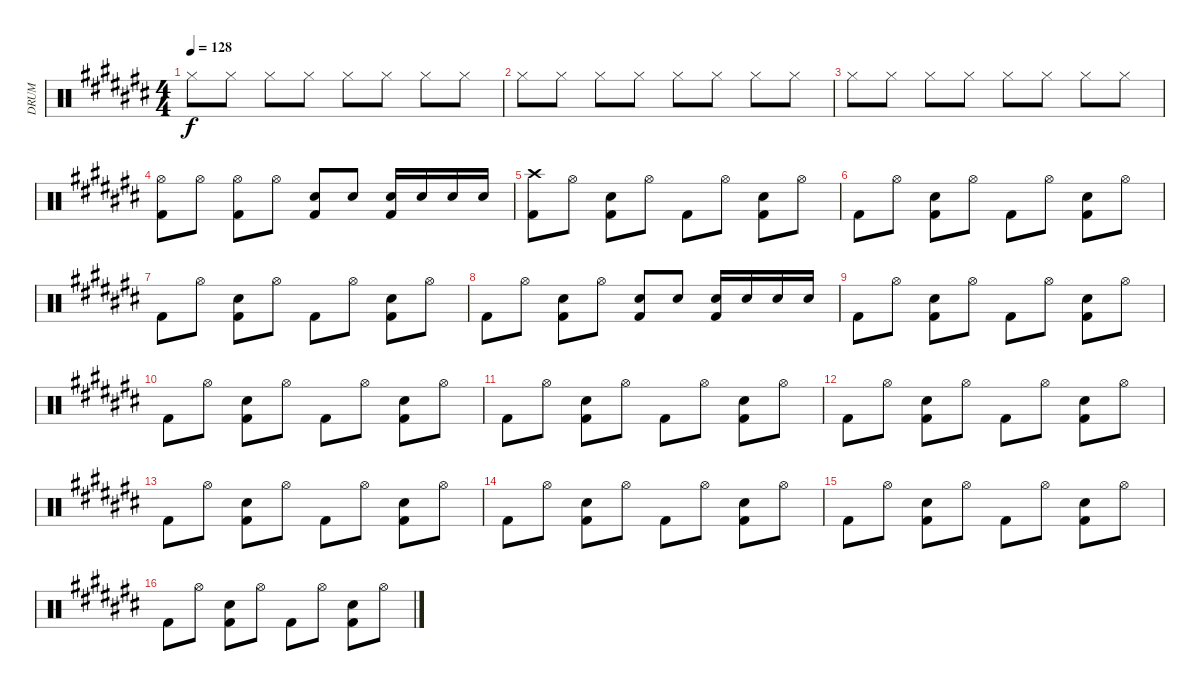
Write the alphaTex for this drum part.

\track ("DRUM" "DRUM") {instrument percussion}
\staff {score}
\articulation defaults
\ts (4 4)
\tempo 128
\clef neutral
\ks c# "Hi-Hat (closed)".8{dy f} "Hi-Hat (closed)".8 "Hi-Hat (closed)".8 "Hi-Hat (closed)".8 "Hi-Hat (closed)".8 "Hi-Hat (closed)".8 "Hi-Hat (closed)".8 "Hi-Hat (closed)".8
|
"Hi-Hat (closed)".8 "Hi-Hat (closed)".8 "Hi-Hat (closed)".8 "Hi-Hat (closed)".8 "Hi-Hat (closed)".8 "Hi-Hat (closed)".8 "Hi-Hat (closed)".8 "Hi-Hat (closed)".8 |
"Hi-Hat (closed)".8 "Hi-Hat (closed)".8 "Hi-Hat (closed)".8 "Hi-Hat (closed)".8 "Hi-Hat (closed)".8 "Hi-Hat (closed)".8 "Hi-Hat (closed)".8 "Hi-Hat (closed)".8 |
("Hi-Hat (open)" "Kick (hit) 2").8 "Hi-Hat (open)".8 ("Hi-Hat (open)" "Kick (hit) 2").8 "Hi-Hat (open)".8 ("Electric Snare (hit)" "Kick (hit) 2").8 "Electric Snare (hit)".8 ("Electric Snare (hit)" "Kick (hit) 2").16 "Electric Snare (hit)".16 "Electric Snare (hit)".16 "Electric Snare (hit)".16 |
("Crash high (hit)" "Kick (hit) 2").8 "Hi-Hat (open)".8 ("Electric Snare (hit)" "Kick (hit) 2").8 "Hi-Hat (open)".8 "Kick (hit) 2".8 "Hi-Hat (open)".8 ("Electric Snare (hit)" "Kick (hit) 2").8 "Hi-Hat (open)".8 |
"Kick (hit) 2".8 "Hi-Hat (open)".8 ("Electric Snare (hit)" "Kick (hit) 2").8 "Hi-Hat (open)".8 "Kick (hit) 2".8 "Hi-Hat (open)".8 ("Electric Snare (hit)" "Kick (hit) 2").8 "Hi-Hat (open)".8 |
"Kick (hit) 2".8 "Hi-Hat (open)".8 ("Electric Snare (hit)" "Kick (hit) 2").8 "Hi-Hat (open)".8 "Kick (hit) 2".8 "Hi-Hat (open)".8 ("Electric Snare (hit)" "Kick (hit) 2").8 "Hi-Hat (open)".8 |
"Kick (hit) 2".8 "Hi-Hat (open)".8 ("Electric Snare (hit)" "Kick (hit) 2").8 "Hi-Hat (open)".8 ("Electric Snare (hit)" "Kick (hit) 2").8 "Electric Snare (hit)".8 ("Electric Snare (hit)" "Kick (hit) 2").16 "Electric Snare (hit)".16 "Electric Snare (hit)".16 "Electric Snare (hit)".16 |
"Kick (hit) 2".8 "Hi-Hat (open)".8 ("Electric Snare (hit)" "Kick (hit) 2").8 "Hi-Hat (open)".8 "Kick (hit) 2".8 "Hi-Hat (open)".8 ("Electric Snare (hit)" "Kick (hit) 2").8 "Hi-Hat (open)".8 |
"Kick (hit) 2".8 "Hi-Hat (open)".8 ("Electric Snare (hit)" "Kick (hit) 2").8 "Hi-Hat (open)".8 "Kick (hit) 2".8 "Hi-Hat (open)".8 ("Electric Snare (hit)" "Kick (hit) 2").8 "Hi-Hat (open)".8 |
"Kick (hit) 2".8 "Hi-Hat (open)".8 ("Electric Snare (hit)" "Kick (hit) 2").8 "Hi-Hat (open)".8 "Kick (hit) 2".8 "Hi-Hat (open)".8 ("Electric Snare (hit)" "Kick (hit) 2").8 "Hi-Hat (open)".8 |
"Kick (hit) 2".8 "Hi-Hat (open)".8 ("Electric Snare (hit)" "Kick (hit) 2").8 "Hi-Hat (open)".8 "Kick (hit) 2".8 "Hi-Hat (open)".8 ("Electric Snare (hit)" "Kick (hit) 2").8 "Hi-Hat (open)".8 |
"Kick (hit) 2".8 "Hi-Hat (open)".8 ("Electric Snare (hit)" "Kick (hit) 2").8 "Hi-Hat (open)".8 "Kick (hit) 2".8 "Hi-Hat (open)".8 ("Electric Snare (hit)" "Kick (hit) 2").8 "Hi-Hat (open)".8 |
"Kick (hit) 2".8 "Hi-Hat (open)".8 ("Electric Snare (hit)" "Kick (hit) 2").8 "Hi-Hat (open)".8 "Kick (hit) 2".8 "Hi-Hat (open)".8 ("Electric Snare (hit)" "Kick (hit) 2").8 "Hi-Hat (open)".8 |
"Kick (hit) 2".8 "Hi-Hat (open)".8 ("Electric Snare (hit)" "Kick (hit) 2").8 "Hi-Hat (open)".8 "Kick (hit) 2".8 "Hi-Hat (open)".8 ("Electric Snare (hit)" "Kick (hit) 2").8 "Hi-Hat (open)".8 |
"Kick (hit) 2".8 "Hi-Hat (open)".8 ("Electric Snare (hit)" "Kick (hit) 2").8 "Hi-Hat (open)".8 "Kick (hit) 2".8 "Hi-Hat (open)".8 ("Electric Snare (hit)" "Kick (hit) 2").8 "Hi-Hat (open)".8
